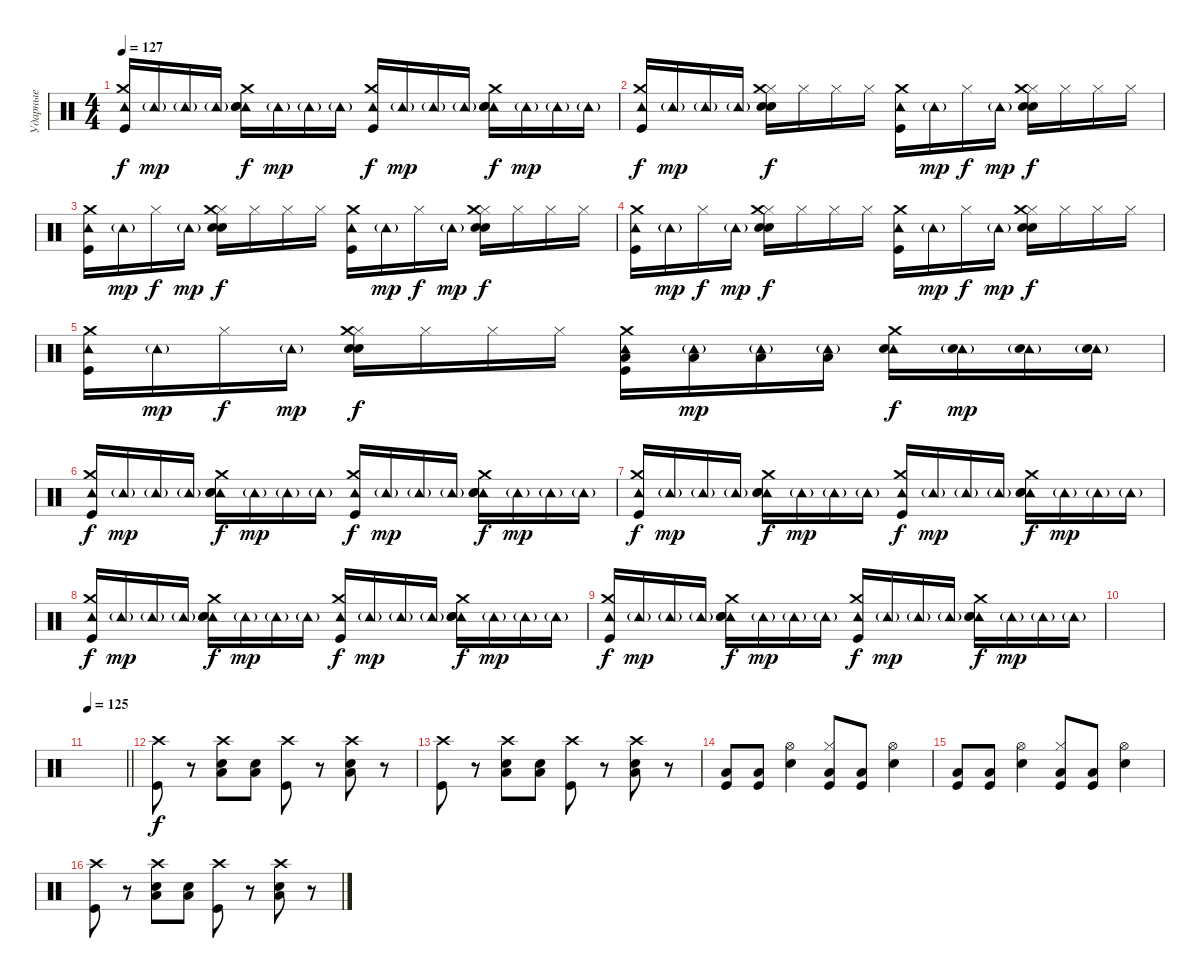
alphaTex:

\track ("Ударные" "Ударные") {instrument percussion}
\staff {score}
\articulation defaults
\ts (4 4)
\tempo 127
\clef neutral
\ks c
("Tambourine (hit)" "Crash medium (hit)" "Kick (hit)").16{dy f} "Tambourine (hit)"{g}.16{dy mp} "Tambourine (hit)"{g}.16 "Tambourine (hit)"{g}.16 ("Tambourine (hit)" "Crash medium (hit)" "Electric Snare (hit)" "Snare (hit) 2").16{dy f} "Tambourine (hit)"{g}.16{dy mp} "Tambourine (hit)"{g}.16 "Tambourine (hit)"{g}.16 ("Tambourine (hit)" "Crash medium (hit)" "Kick (hit)").16{dy f} "Tambourine (hit)"{g}.16{dy mp} "Tambourine (hit)"{g}.16 "Tambourine (hit)"{g}.16 ("Tambourine (hit)" "Crash medium (hit)" "Electric Snare (hit)" "Snare (hit) 2").16{dy f} "Tambourine (hit)"{g}.16{dy mp} "Tambourine (hit)"{g}.16 "Tambourine (hit)"{g}.16 |
("Tambourine (hit)" "Crash medium (hit)" "Kick (hit)").16{dy f} "Tambourine (hit)"{g}.16{dy mp} "Tambourine (hit)"{g}.16 "Tambourine (hit)"{g}.16 ("Hi-Hat (closed)" "Crash medium (hit)" "Electric Snare (hit)" "Snare (hit) 2").16{dy f} "Hi-Hat (closed)".16 "Hi-Hat (closed)".16 "Hi-Hat (closed)".16 ("Tambourine (hit)" "Crash medium (hit)" "Kick (hit)").16 "Tambourine (hit)"{g}.16{dy mp} "Hi-Hat (closed)".16{dy f} "Tambourine (hit)"{g}.16{dy mp} ("Hi-Hat (closed)" "Crash medium (hit)" "Electric Snare (hit)" "Snare (hit) 2").16{dy f} "Hi-Hat (closed)".16 "Hi-Hat (closed)".16 "Hi-Hat (closed)".16 |
("Tambourine (hit)" "Crash medium (hit)" "Kick (hit)").16 "Tambourine (hit)"{g}.16{dy mp} "Hi-Hat (closed)".16{dy f} "Tambourine (hit)"{g}.16{dy mp} ("Hi-Hat (closed)" "Crash medium (hit)" "Electric Snare (hit)" "Snare (hit) 2").16{dy f} "Hi-Hat (closed)".16 "Hi-Hat (closed)".16 "Hi-Hat (closed)".16 ("Tambourine (hit)" "Crash medium (hit)" "Kick (hit)").16 "Tambourine (hit)"{g}.16{dy mp} "Hi-Hat (closed)".16{dy f} "Tambourine (hit)"{g}.16{dy mp} ("Hi-Hat (closed)" "Crash medium (hit)" "Electric Snare (hit)" "Snare (hit) 2").16{dy f} "Hi-Hat (closed)".16 "Hi-Hat (closed)".16 "Hi-Hat (closed)".16 |
("Tambourine (hit)" "Crash medium (hit)" "Kick (hit)").16 "Tambourine (hit)"{g}.16{dy mp} "Hi-Hat (closed)".16{dy f} "Tambourine (hit)"{g}.16{dy mp} ("Hi-Hat (closed)" "Crash medium (hit)" "Electric Snare (hit)" "Snare (hit) 2").16{dy f} "Hi-Hat (closed)".16 "Hi-Hat (closed)".16 "Hi-Hat (closed)".16 ("Tambourine (hit)" "Crash medium (hit)" "Kick (hit)").16 "Tambourine (hit)"{g}.16{dy mp} "Hi-Hat (closed)".16{dy f} "Tambourine (hit)"{g}.16{dy mp} ("Hi-Hat (closed)" "Crash medium (hit)" "Electric Snare (hit)" "Snare (hit) 2").16{dy f} "Hi-Hat (closed)".16 "Hi-Hat (closed)".16 "Hi-Hat (closed)".16 |
("Tambourine (hit)" "Crash medium (hit)" "Kick (hit)").16 "Tambourine (hit)"{g}.16{dy mp} "Hi-Hat (closed)".16{dy f} "Tambourine (hit)"{g}.16{dy mp} ("Hi-Hat (closed)" "Crash medium (hit)" "Electric Snare (hit)" "Snare (hit) 2").16{dy f} "Hi-Hat (closed)".16 "Hi-Hat (closed)".16 "Hi-Hat (closed)".16 ("Tambourine (hit)" "Crash medium (hit)" "Low Tom (hit)" "Kick (hit)").16 ("Tambourine (hit)"{g} "Low Tom (hit)").16{dy mp} ("Tambourine (hit)"{g} "Low Tom (hit)").16 ("Tambourine (hit)"{g} "Low Tom (hit)").16 ("Tambourine (hit)" "Crash medium (hit)" "Electric Snare (hit)").16{dy f} ("Tambourine (hit)"{g} "Electric Snare (hit)").16{dy mp} ("Tambourine (hit)"{g} "Electric Snare (hit)").16 ("Tambourine (hit)"{g} "Electric Snare (hit)").16 |
("Tambourine (hit)" "Crash medium (hit)" "Kick (hit)").16{dy f} "Tambourine (hit)"{g}.16{dy mp} "Tambourine (hit)"{g}.16 "Tambourine (hit)"{g}.16 ("Tambourine (hit)" "Crash medium (hit)" "Electric Snare (hit)" "Snare (hit) 2").16{dy f} "Tambourine (hit)"{g}.16{dy mp} "Tambourine (hit)"{g}.16 "Tambourine (hit)"{g}.16 ("Tambourine (hit)" "Crash medium (hit)" "Kick (hit)").16{dy f} "Tambourine (hit)"{g}.16{dy mp} "Tambourine (hit)"{g}.16 "Tambourine (hit)"{g}.16 ("Tambourine (hit)" "Crash medium (hit)" "Electric Snare (hit)" "Snare (hit) 2").16{dy f} "Tambourine (hit)"{g}.16{dy mp} "Tambourine (hit)"{g}.16 "Tambourine (hit)"{g}.16 |
("Tambourine (hit)" "Crash medium (hit)" "Kick (hit)").16{dy f} "Tambourine (hit)"{g}.16{dy mp} "Tambourine (hit)"{g}.16 "Tambourine (hit)"{g}.16 ("Tambourine (hit)" "Crash medium (hit)" "Electric Snare (hit)" "Snare (hit) 2").16{dy f} "Tambourine (hit)"{g}.16{dy mp} "Tambourine (hit)"{g}.16 "Tambourine (hit)"{g}.16 ("Tambourine (hit)" "Crash medium (hit)" "Kick (hit)").16{dy f} "Tambourine (hit)"{g}.16{dy mp} "Tambourine (hit)"{g}.16 "Tambourine (hit)"{g}.16 ("Tambourine (hit)" "Crash medium (hit)" "Electric Snare (hit)" "Snare (hit) 2").16{dy f} "Tambourine (hit)"{g}.16{dy mp} "Tambourine (hit)"{g}.16 "Tambourine (hit)"{g}.16 |
("Tambourine (hit)" "Crash medium (hit)" "Kick (hit)").16{dy f} "Tambourine (hit)"{g}.16{dy mp} "Tambourine (hit)"{g}.16 "Tambourine (hit)"{g}.16 ("Tambourine (hit)" "Crash medium (hit)" "Electric Snare (hit)" "Snare (hit) 2").16{dy f} "Tambourine (hit)"{g}.16{dy mp} "Tambourine (hit)"{g}.16 "Tambourine (hit)"{g}.16 ("Tambourine (hit)" "Crash medium (hit)" "Kick (hit)").16{dy f} "Tambourine (hit)"{g}.16{dy mp} "Tambourine (hit)"{g}.16 "Tambourine (hit)"{g}.16 ("Tambourine (hit)" "Crash medium (hit)" "Electric Snare (hit)" "Snare (hit) 2").16{dy f} "Tambourine (hit)"{g}.16{dy mp} "Tambourine (hit)"{g}.16 "Tambourine (hit)"{g}.16 |
("Tambourine (hit)" "Crash medium (hit)" "Kick (hit)").16{dy f} "Tambourine (hit)"{g}.16{dy mp} "Tambourine (hit)"{g}.16 "Tambourine (hit)"{g}.16 ("Tambourine (hit)" "Crash medium (hit)" "Electric Snare (hit)" "Snare (hit) 2").16{dy f} "Tambourine (hit)"{g}.16{dy mp} "Tambourine (hit)"{g}.16 "Tambourine (hit)"{g}.16 ("Tambourine (hit)" "Crash medium (hit)" "Kick (hit)").16{dy f} "Tambourine (hit)"{g}.16{dy mp} "Tambourine (hit)"{g}.16 "Tambourine (hit)"{g}.16 ("Tambourine (hit)" "Crash medium (hit)" "Electric Snare (hit)" "Snare (hit) 2").16{dy f} "Tambourine (hit)"{g}.16{dy mp} "Tambourine (hit)"{g}.16 "Tambourine (hit)"{g}.16 |
|
\tempo 125
\barLineRight lightlight
|
("Crash high (hit)" "Kick (hit)").8{dy f} r.8 ("Crash high (hit)" "Electric Snare (hit)" "Low Tom (hit)").8 ("Electric Snare (hit)" "Low Tom (hit)").8 ("Crash high (hit)" "Kick (hit)").8 r.8 ("Crash high (hit)" "Electric Snare (hit)" "Low Tom (hit)").8 r.8 |
("Crash high (hit)" "Kick (hit)").8 r.8 ("Crash high (hit)" "Electric Snare (hit)" "Low Tom (hit)").8 ("Electric Snare (hit)" "Low Tom (hit)").8 ("Crash high (hit)" "Kick (hit)").8 r.8 ("Crash high (hit)" "Electric Snare (hit)" "Low Tom (hit)").8 r.8 |
("Low Tom (hit)" "Kick (hit)").8 ("Low Tom (hit)" "Kick (hit)").8 ("Hi-Hat (open)" "Snare (hit) 2").4 ("Hi-Hat (closed)" "Low Tom (hit)" "Kick (hit)").8 ("Low Tom (hit)" "Kick (hit)").8 ("Hi-Hat (open)" "Snare (hit) 2").4 |
("Low Tom (hit)" "Kick (hit)").8 ("Low Tom (hit)" "Kick (hit)").8 ("Hi-Hat (open)" "Snare (hit) 2").4 ("Hi-Hat (closed)" "Low Tom (hit)" "Kick (hit)").8 ("Low Tom (hit)" "Kick (hit)").8 ("Hi-Hat (open)" "Snare (hit) 2").4 |
("Crash high (hit)" "Kick (hit)").8 r.8 ("Crash high (hit)" "Electric Snare (hit)" "Low Tom (hit)").8 ("Electric Snare (hit)" "Low Tom (hit)").8 ("Crash high (hit)" "Kick (hit)").8 r.8 ("Crash high (hit)" "Electric Snare (hit)" "Low Tom (hit)").8 r.8
